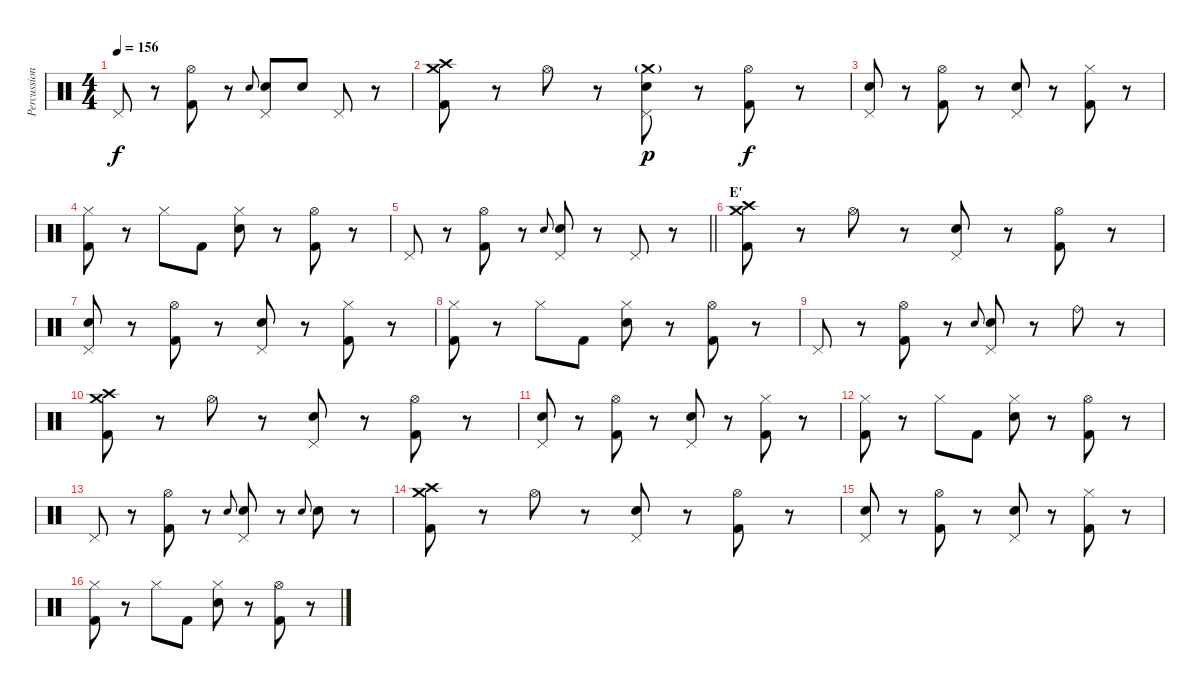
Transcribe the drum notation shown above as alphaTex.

\track ("Percussion" "Percussion") {instrument percussion}
\staff {score}
\articulation defaults
\ts (4 4)
\tempo 156
\clef neutral
\ks c "Pedal Hi-Hat (hit)".8{dy f}
r.8 ("Hi-Hat (open)" "Kick (hit) 2").8 r.8 "Snare (hit) 2".8{gr onbeat} ("Pedal Hi-Hat (hit)" "Snare (hit) 2").8 "Snare (hit) 2".8 "Pedal Hi-Hat (hit)".8 r.8 |
("Crash high (hit)" "Crash medium (hit)" "Kick (hit) 2").8 r.8 "Hi-Hat (open)".8 r.8 ("Crash medium (hit)"{g} "Pedal Hi-Hat (hit)" "Snare (hit) 2").8{dy p} r.8 ("Hi-Hat (open)" "Kick (hit) 2").8{dy f} r.8 |
("Pedal Hi-Hat (hit)" "Snare (hit) 2").8 r.8 ("Hi-Hat (open)" "Kick (hit) 2").8 r.8 ("Pedal Hi-Hat (hit)" "Snare (hit) 2").8 r.8 ("Hi-Hat (closed)" "Kick (hit) 2").8 r.8 |
("Hi-Hat (closed)" "Kick (hit) 2").8 r.8 "Hi-Hat (closed)".8 "Kick (hit) 2".8 ("Hi-Hat (closed)" "Snare (hit) 2").8 r.8 ("Hi-Hat (open)" "Kick (hit) 2").8 r.8 |
\barLineRight lightlight "Pedal Hi-Hat (hit)".8
r.8 ("Hi-Hat (open)" "Kick (hit) 2").8 r.8 "Snare (hit) 2".8{gr onbeat} ("Pedal Hi-Hat (hit)" "Snare (hit) 2").8 r.8 "Pedal Hi-Hat (hit)".8 r.8 |
\section ("" "E'")
("Crash high (hit)" "Crash medium (hit)" "Kick (hit) 2").8 r.8 "Hi-Hat (open)".8 r.8 ("Pedal Hi-Hat (hit)" "Snare (hit) 2").8 r.8 ("Hi-Hat (open)" "Kick (hit) 2").8 r.8 |
("Pedal Hi-Hat (hit)" "Snare (hit) 2").8 r.8 ("Hi-Hat (open)" "Kick (hit) 2").8 r.8 ("Pedal Hi-Hat (hit)" "Snare (hit) 2").8 r.8 ("Hi-Hat (closed)" "Kick (hit) 2").8 r.8 |
("Hi-Hat (closed)" "Kick (hit) 2").8 r.8 "Hi-Hat (closed)".8 "Kick (hit) 2".8 ("Hi-Hat (closed)" "Snare (hit) 2").8 r.8 ("Hi-Hat (open)" "Kick (hit) 2").8 r.8 |
"Pedal Hi-Hat (hit)".8 r.8 ("Hi-Hat (open)" "Kick (hit) 2").8 r.8 "Snare (hit) 2".8{gr onbeat} ("Pedal Hi-Hat (hit)" "Snare (hit) 2").8 r.8 "Ride (bell)".8 r.8 |
("Crash high (hit)" "Crash medium (hit)" "Kick (hit) 2").8 r.8 "Hi-Hat (open)".8 r.8 ("Pedal Hi-Hat (hit)" "Snare (hit) 2").8 r.8 ("Hi-Hat (open)" "Kick (hit) 2").8 r.8 |
("Pedal Hi-Hat (hit)" "Snare (hit) 2").8 r.8 ("Hi-Hat (open)" "Kick (hit) 2").8 r.8 ("Pedal Hi-Hat (hit)" "Snare (hit) 2").8 r.8 ("Hi-Hat (closed)" "Kick (hit) 2").8 r.8 |
("Hi-Hat (closed)" "Kick (hit) 2").8 r.8 "Hi-Hat (closed)".8 "Kick (hit) 2".8 ("Hi-Hat (closed)" "Snare (hit) 2").8 r.8 ("Hi-Hat (open)" "Kick (hit) 2").8 r.8 |
"Pedal Hi-Hat (hit)".8 r.8 ("Hi-Hat (open)" "Kick (hit) 2").8 r.8 "Snare (hit) 2".8{gr onbeat} ("Pedal Hi-Hat (hit)" "Snare (hit) 2").8 r.8 "Snare (hit) 2".8{gr onbeat} "Snare (hit) 2".8 r.8 |
("Crash high (hit)" "Crash medium (hit)" "Kick (hit) 2").8 r.8 "Hi-Hat (open)".8 r.8 ("Pedal Hi-Hat (hit)" "Snare (hit) 2").8 r.8 ("Hi-Hat (open)" "Kick (hit) 2").8 r.8 |
("Pedal Hi-Hat (hit)" "Snare (hit) 2").8 r.8 ("Hi-Hat (open)" "Kick (hit) 2").8 r.8 ("Pedal Hi-Hat (hit)" "Snare (hit) 2").8 r.8 ("Hi-Hat (closed)" "Kick (hit) 2").8 r.8 |
("Hi-Hat (closed)" "Kick (hit) 2").8 r.8 "Hi-Hat (closed)".8 "Kick (hit) 2".8 ("Hi-Hat (closed)" "Snare (hit) 2").8 r.8 ("Hi-Hat (open)" "Kick (hit) 2").8 r.8
